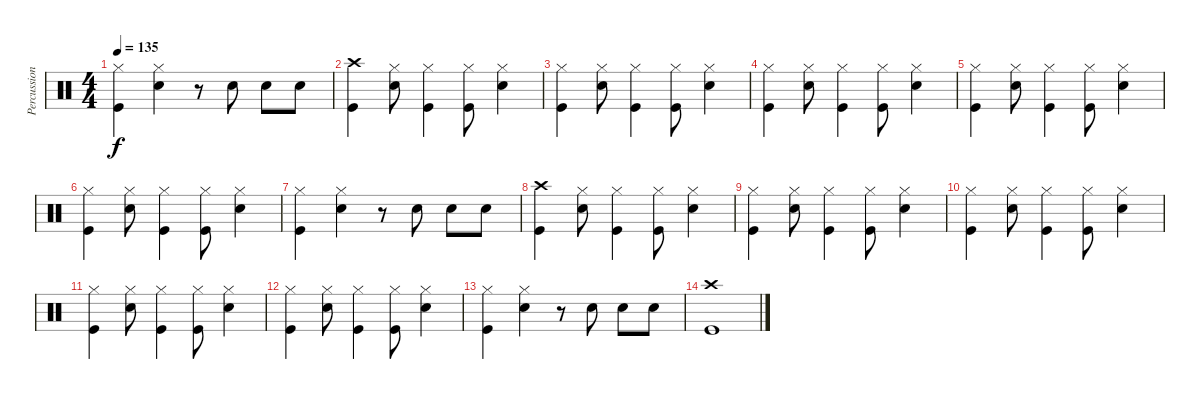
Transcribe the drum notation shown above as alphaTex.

\track ("Percussion" "Percussion") {instrument percussion}
\staff {score}
\articulation defaults
\ts (4 4)
\tempo 135
\clef neutral
\ks c
("Hi-Hat (closed)" "Kick (hit)").4{dy f} ("Hi-Hat (closed)" "Electric Snare (hit)").4 r.8 "Electric Snare (hit)".8 "Electric Snare (hit)".8 "Electric Snare (hit)".8 |
("Crash high (hit)" "Kick (hit)").4 ("Hi-Hat (closed)" "Electric Snare (hit)").8 ("Hi-Hat (closed)" "Kick (hit)").4 ("Hi-Hat (closed)" "Kick (hit)").8 ("Hi-Hat (closed)" "Electric Snare (hit)").4 |
("Hi-Hat (closed)" "Kick (hit)").4 ("Hi-Hat (closed)" "Electric Snare (hit)").8 ("Hi-Hat (closed)" "Kick (hit)").4 ("Hi-Hat (closed)" "Kick (hit)").8 ("Hi-Hat (closed)" "Electric Snare (hit)").4 |
("Hi-Hat (closed)" "Kick (hit)").4 ("Hi-Hat (closed)" "Electric Snare (hit)").8 ("Hi-Hat (closed)" "Kick (hit)").4 ("Hi-Hat (closed)" "Kick (hit)").8 ("Hi-Hat (closed)" "Electric Snare (hit)").4 |
("Hi-Hat (closed)" "Kick (hit)").4 ("Hi-Hat (closed)" "Electric Snare (hit)").8 ("Hi-Hat (closed)" "Kick (hit)").4 ("Hi-Hat (closed)" "Kick (hit)").8 ("Hi-Hat (closed)" "Electric Snare (hit)").4 |
("Hi-Hat (closed)" "Kick (hit)").4 ("Hi-Hat (closed)" "Electric Snare (hit)").8 ("Hi-Hat (closed)" "Kick (hit)").4 ("Hi-Hat (closed)" "Kick (hit)").8 ("Hi-Hat (closed)" "Electric Snare (hit)").4 |
("Hi-Hat (closed)" "Kick (hit)").4 ("Hi-Hat (closed)" "Electric Snare (hit)").4 r.8 "Electric Snare (hit)".8 "Electric Snare (hit)".8 "Electric Snare (hit)".8 |
("Crash high (hit)" "Kick (hit)").4 ("Hi-Hat (closed)" "Electric Snare (hit)").8 ("Hi-Hat (closed)" "Kick (hit)").4 ("Hi-Hat (closed)" "Kick (hit)").8 ("Hi-Hat (closed)" "Electric Snare (hit)").4 |
("Hi-Hat (closed)" "Kick (hit)").4 ("Hi-Hat (closed)" "Electric Snare (hit)").8 ("Hi-Hat (closed)" "Kick (hit)").4 ("Hi-Hat (closed)" "Kick (hit)").8 ("Hi-Hat (closed)" "Electric Snare (hit)").4 |
("Hi-Hat (closed)" "Kick (hit)").4 ("Hi-Hat (closed)" "Electric Snare (hit)").8 ("Hi-Hat (closed)" "Kick (hit)").4 ("Hi-Hat (closed)" "Kick (hit)").8 ("Hi-Hat (closed)" "Electric Snare (hit)").4 |
("Hi-Hat (closed)" "Kick (hit)").4 ("Hi-Hat (closed)" "Electric Snare (hit)").8 ("Hi-Hat (closed)" "Kick (hit)").4 ("Hi-Hat (closed)" "Kick (hit)").8 ("Hi-Hat (closed)" "Electric Snare (hit)").4 |
("Hi-Hat (closed)" "Kick (hit)").4 ("Hi-Hat (closed)" "Electric Snare (hit)").8 ("Hi-Hat (closed)" "Kick (hit)").4 ("Hi-Hat (closed)" "Kick (hit)").8 ("Hi-Hat (closed)" "Electric Snare (hit)").4 |
("Hi-Hat (closed)" "Kick (hit)").4 ("Hi-Hat (closed)" "Electric Snare (hit)").4 r.8 "Electric Snare (hit)".8 "Electric Snare (hit)".8 "Electric Snare (hit)".8 |
("Crash high (hit)" "Kick (hit)").1
